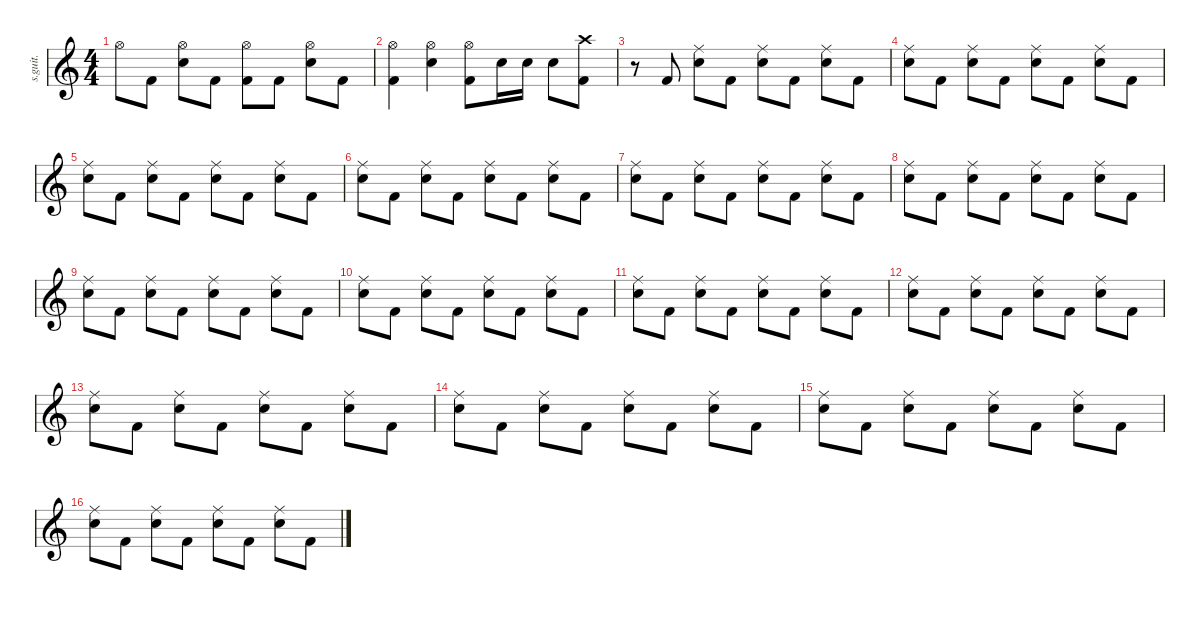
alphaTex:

\defaultSystemsLayout 4
\hideDynamics
\bracketExtendMode nobrackets
\track ("Nick Menza (Drums)" "s.guit.") {instrument percussion}
\staff {score}
\articulation defaults
\ts (4 4)
\tempo (196 hide)
\clef g2
\ks c "Hi-Hat (open)".8{lyrics (0 "") lyrics (1 "") lyrics (2 "") lyrics (3 "") lyrics (4 "") dy f} "Kick (hit) 2".8{lyrics (0 "") lyrics (1 "") lyrics (2 "") lyrics (3 "") lyrics (4 "") dy fff}
("Hi-Hat (open)" "Snare (hit) 2").8{lyrics (0 "") lyrics (1 "") lyrics (2 "") lyrics (3 "") lyrics (4 "") dy f} "Kick (hit) 2".8{lyrics (0 "") lyrics (1 "") lyrics (2 "") lyrics (3 "") lyrics (4 "") dy fff} ("Hi-Hat (open)" "Kick (hit) 2").8{lyrics (0 "") lyrics (1 "") lyrics (2 "") lyrics (3 "") lyrics (4 "") dy f} "Kick (hit) 2".8{lyrics (0 "") lyrics (1 "") lyrics (2 "") lyrics (3 "") lyrics (4 "") dy fff} ("Hi-Hat (open)" "Snare (hit) 2").8{lyrics (0 "") lyrics (1 "") lyrics (2 "") lyrics (3 "") lyrics (4 "") dy f} "Kick (hit) 2".8{lyrics (0 "") lyrics (1 "") lyrics (2 "") lyrics (3 "") lyrics (4 "")} |
("Hi-Hat (open)" "Kick (hit) 2").4{lyrics (0 "") lyrics (1 "") lyrics (2 "") lyrics (3 "") lyrics (4 "")} ("Hi-Hat (open)" "Snare (hit) 2").4{lyrics (0 "") lyrics (1 "") lyrics (2 "") lyrics (3 "") lyrics (4 "")} ("Hi-Hat (open)" "Kick (hit) 2").8{lyrics (0 "") lyrics (1 "") lyrics (2 "") lyrics (3 "") lyrics (4 "")} "Snare (hit) 2".16{lyrics (0 "") lyrics (1 "") lyrics (2 "") lyrics (3 "") lyrics (4 "")} "Snare (hit) 2".16{lyrics (0 "") lyrics (1 "") lyrics (2 "") lyrics (3 "") lyrics (4 "")} "Snare (hit) 2".8{lyrics (0 "") lyrics (1 "") lyrics (2 "") lyrics (3 "") lyrics (4 "")} ("Crash high (hit)" "Kick (hit) 2").8{lyrics (0 "") lyrics (1 "") lyrics (2 "") lyrics (3 "") lyrics (4 "")} |
r.8 "Kick (hit) 2".8{lyrics (0 "") lyrics (1 "") lyrics (2 "") lyrics (3 "") lyrics (4 "") dy fff} ("Ride (middle)" "Snare (hit) 2").8{lyrics (0 "") lyrics (1 "") lyrics (2 "") lyrics (3 "") lyrics (4 "") dy f} "Kick (hit) 2".8{lyrics (0 "") lyrics (1 "") lyrics (2 "") lyrics (3 "") lyrics (4 "") dy fff} ("Ride (middle)" "Snare (hit) 2").8{lyrics (0 "") lyrics (1 "") lyrics (2 "") lyrics (3 "") lyrics (4 "") dy f} "Kick (hit) 2".8{lyrics (0 "") lyrics (1 "") lyrics (2 "") lyrics (3 "") lyrics (4 "") dy fff} ("Ride (middle)" "Snare (hit) 2").8{lyrics (0 "") lyrics (1 "") lyrics (2 "") lyrics (3 "") lyrics (4 "") dy f} "Kick (hit) 2".8{lyrics (0 "") lyrics (1 "") lyrics (2 "") lyrics (3 "") lyrics (4 "")} |
("Ride (middle)" "Snare (hit) 2").8{lyrics (0 "") lyrics (1 "") lyrics (2 "") lyrics (3 "") lyrics (4 "")} "Kick (hit) 2".8{lyrics (0 "") lyrics (1 "") lyrics (2 "") lyrics (3 "") lyrics (4 "") dy fff} ("Ride (middle)" "Snare (hit) 2").8{lyrics (0 "") lyrics (1 "") lyrics (2 "") lyrics (3 "") lyrics (4 "") dy f} "Kick (hit) 2".8{lyrics (0 "") lyrics (1 "") lyrics (2 "") lyrics (3 "") lyrics (4 "") dy fff} ("Ride (middle)" "Snare (hit) 2").8{lyrics (0 "") lyrics (1 "") lyrics (2 "") lyrics (3 "") lyrics (4 "") dy f} "Kick (hit) 2".8{lyrics (0 "") lyrics (1 "") lyrics (2 "") lyrics (3 "") lyrics (4 "") dy fff} ("Ride (middle)" "Snare (hit) 2").8{lyrics (0 "") lyrics (1 "") lyrics (2 "") lyrics (3 "") lyrics (4 "") dy f} "Kick (hit) 2".8{lyrics (0 "") lyrics (1 "") lyrics (2 "") lyrics (3 "") lyrics (4 "")} |
("Ride (middle)" "Snare (hit) 2").8{lyrics (0 "") lyrics (1 "") lyrics (2 "") lyrics (3 "") lyrics (4 "")} "Kick (hit) 2".8{lyrics (0 "") lyrics (1 "") lyrics (2 "") lyrics (3 "") lyrics (4 "") dy fff} ("Ride (middle)" "Snare (hit) 2").8{lyrics (0 "") lyrics (1 "") lyrics (2 "") lyrics (3 "") lyrics (4 "") dy f} "Kick (hit) 2".8{lyrics (0 "") lyrics (1 "") lyrics (2 "") lyrics (3 "") lyrics (4 "") dy fff} ("Ride (middle)" "Snare (hit) 2").8{lyrics (0 "") lyrics (1 "") lyrics (2 "") lyrics (3 "") lyrics (4 "") dy f} "Kick (hit) 2".8{lyrics (0 "") lyrics (1 "") lyrics (2 "") lyrics (3 "") lyrics (4 "") dy fff} ("Ride (middle)" "Snare (hit) 2").8{lyrics (0 "") lyrics (1 "") lyrics (2 "") lyrics (3 "") lyrics (4 "") dy f} "Kick (hit) 2".8{lyrics (0 "") lyrics (1 "") lyrics (2 "") lyrics (3 "") lyrics (4 "")} |
("Ride (middle)" "Snare (hit) 2").8{lyrics (0 "") lyrics (1 "") lyrics (2 "") lyrics (3 "") lyrics (4 "")} "Kick (hit) 2".8{lyrics (0 "") lyrics (1 "") lyrics (2 "") lyrics (3 "") lyrics (4 "") dy fff} ("Ride (middle)" "Snare (hit) 2").8{lyrics (0 "") lyrics (1 "") lyrics (2 "") lyrics (3 "") lyrics (4 "") dy f} "Kick (hit) 2".8{lyrics (0 "") lyrics (1 "") lyrics (2 "") lyrics (3 "") lyrics (4 "") dy fff} ("Ride (middle)" "Snare (hit) 2").8{lyrics (0 "") lyrics (1 "") lyrics (2 "") lyrics (3 "") lyrics (4 "") dy f} "Kick (hit) 2".8{lyrics (0 "") lyrics (1 "") lyrics (2 "") lyrics (3 "") lyrics (4 "") dy fff} ("Ride (middle)" "Snare (hit) 2").8{lyrics (0 "") lyrics (1 "") lyrics (2 "") lyrics (3 "") lyrics (4 "") dy f} "Kick (hit) 2".8{lyrics (0 "") lyrics (1 "") lyrics (2 "") lyrics (3 "") lyrics (4 "")} |
("Ride (middle)" "Snare (hit) 2").8{lyrics (0 "") lyrics (1 "") lyrics (2 "") lyrics (3 "") lyrics (4 "")} "Kick (hit) 2".8{lyrics (0 "") lyrics (1 "") lyrics (2 "") lyrics (3 "") lyrics (4 "") dy fff} ("Ride (middle)" "Snare (hit) 2").8{lyrics (0 "") lyrics (1 "") lyrics (2 "") lyrics (3 "") lyrics (4 "") dy f} "Kick (hit) 2".8{lyrics (0 "") lyrics (1 "") lyrics (2 "") lyrics (3 "") lyrics (4 "") dy fff} ("Ride (middle)" "Snare (hit) 2").8{lyrics (0 "") lyrics (1 "") lyrics (2 "") lyrics (3 "") lyrics (4 "") dy f} "Kick (hit) 2".8{lyrics (0 "") lyrics (1 "") lyrics (2 "") lyrics (3 "") lyrics (4 "") dy fff} ("Ride (middle)" "Snare (hit) 2").8{lyrics (0 "") lyrics (1 "") lyrics (2 "") lyrics (3 "") lyrics (4 "") dy f} "Kick (hit) 2".8{lyrics (0 "") lyrics (1 "") lyrics (2 "") lyrics (3 "") lyrics (4 "")} |
("Ride (middle)" "Snare (hit) 2").8{lyrics (0 "") lyrics (1 "") lyrics (2 "") lyrics (3 "") lyrics (4 "")} "Kick (hit) 2".8{lyrics (0 "") lyrics (1 "") lyrics (2 "") lyrics (3 "") lyrics (4 "") dy fff} ("Ride (middle)" "Snare (hit) 2").8{lyrics (0 "") lyrics (1 "") lyrics (2 "") lyrics (3 "") lyrics (4 "") dy f} "Kick (hit) 2".8{lyrics (0 "") lyrics (1 "") lyrics (2 "") lyrics (3 "") lyrics (4 "") dy fff} ("Ride (middle)" "Snare (hit) 2").8{lyrics (0 "") lyrics (1 "") lyrics (2 "") lyrics (3 "") lyrics (4 "") dy f} "Kick (hit) 2".8{lyrics (0 "") lyrics (1 "") lyrics (2 "") lyrics (3 "") lyrics (4 "") dy fff} ("Ride (middle)" "Snare (hit) 2").8{lyrics (0 "") lyrics (1 "") lyrics (2 "") lyrics (3 "") lyrics (4 "") dy f} "Kick (hit) 2".8{lyrics (0 "") lyrics (1 "") lyrics (2 "") lyrics (3 "") lyrics (4 "")} |
("Ride (middle)" "Snare (hit) 2").8{lyrics (0 "") lyrics (1 "") lyrics (2 "") lyrics (3 "") lyrics (4 "")} "Kick (hit) 2".8{lyrics (0 "") lyrics (1 "") lyrics (2 "") lyrics (3 "") lyrics (4 "") dy fff} ("Ride (middle)" "Snare (hit) 2").8{lyrics (0 "") lyrics (1 "") lyrics (2 "") lyrics (3 "") lyrics (4 "") dy f} "Kick (hit) 2".8{lyrics (0 "") lyrics (1 "") lyrics (2 "") lyrics (3 "") lyrics (4 "") dy fff} ("Ride (middle)" "Snare (hit) 2").8{lyrics (0 "") lyrics (1 "") lyrics (2 "") lyrics (3 "") lyrics (4 "") dy f} "Kick (hit) 2".8{lyrics (0 "") lyrics (1 "") lyrics (2 "") lyrics (3 "") lyrics (4 "") dy fff} ("Ride (middle)" "Snare (hit) 2").8{lyrics (0 "") lyrics (1 "") lyrics (2 "") lyrics (3 "") lyrics (4 "") dy f} "Kick (hit) 2".8{lyrics (0 "") lyrics (1 "") lyrics (2 "") lyrics (3 "") lyrics (4 "")} |
("Ride (middle)" "Snare (hit) 2").8{lyrics (0 "") lyrics (1 "") lyrics (2 "") lyrics (3 "") lyrics (4 "")} "Kick (hit) 2".8{lyrics (0 "") lyrics (1 "") lyrics (2 "") lyrics (3 "") lyrics (4 "") dy fff} ("Ride (middle)" "Snare (hit) 2").8{lyrics (0 "") lyrics (1 "") lyrics (2 "") lyrics (3 "") lyrics (4 "") dy f} "Kick (hit) 2".8{lyrics (0 "") lyrics (1 "") lyrics (2 "") lyrics (3 "") lyrics (4 "") dy fff} ("Ride (middle)" "Snare (hit) 2").8{lyrics (0 "") lyrics (1 "") lyrics (2 "") lyrics (3 "") lyrics (4 "") dy f} "Kick (hit) 2".8{lyrics (0 "") lyrics (1 "") lyrics (2 "") lyrics (3 "") lyrics (4 "") dy fff} ("Ride (middle)" "Snare (hit) 2").8{lyrics (0 "") lyrics (1 "") lyrics (2 "") lyrics (3 "") lyrics (4 "") dy f} "Kick (hit) 2".8{lyrics (0 "") lyrics (1 "") lyrics (2 "") lyrics (3 "") lyrics (4 "")} |
("Ride (middle)" "Snare (hit) 2").8{lyrics (0 "") lyrics (1 "") lyrics (2 "") lyrics (3 "") lyrics (4 "")} "Kick (hit) 2".8{lyrics (0 "") lyrics (1 "") lyrics (2 "") lyrics (3 "") lyrics (4 "") dy fff} ("Ride (middle)" "Snare (hit) 2").8{lyrics (0 "") lyrics (1 "") lyrics (2 "") lyrics (3 "") lyrics (4 "") dy f} "Kick (hit) 2".8{lyrics (0 "") lyrics (1 "") lyrics (2 "") lyrics (3 "") lyrics (4 "") dy fff} ("Ride (middle)" "Snare (hit) 2").8{lyrics (0 "") lyrics (1 "") lyrics (2 "") lyrics (3 "") lyrics (4 "") dy f} "Kick (hit) 2".8{lyrics (0 "") lyrics (1 "") lyrics (2 "") lyrics (3 "") lyrics (4 "") dy fff} ("Ride (middle)" "Snare (hit) 2").8{lyrics (0 "") lyrics (1 "") lyrics (2 "") lyrics (3 "") lyrics (4 "") dy f} "Kick (hit) 2".8{lyrics (0 "") lyrics (1 "") lyrics (2 "") lyrics (3 "") lyrics (4 "")} |
("Ride (middle)" "Snare (hit) 2").8{lyrics (0 "") lyrics (1 "") lyrics (2 "") lyrics (3 "") lyrics (4 "")} "Kick (hit) 2".8{lyrics (0 "") lyrics (1 "") lyrics (2 "") lyrics (3 "") lyrics (4 "") dy fff} ("Ride (middle)" "Snare (hit) 2").8{lyrics (0 "") lyrics (1 "") lyrics (2 "") lyrics (3 "") lyrics (4 "") dy f} "Kick (hit) 2".8{lyrics (0 "") lyrics (1 "") lyrics (2 "") lyrics (3 "") lyrics (4 "") dy fff} ("Ride (middle)" "Snare (hit) 2").8{lyrics (0 "") lyrics (1 "") lyrics (2 "") lyrics (3 "") lyrics (4 "") dy f} "Kick (hit) 2".8{lyrics (0 "") lyrics (1 "") lyrics (2 "") lyrics (3 "") lyrics (4 "") dy fff} ("Ride (middle)" "Snare (hit) 2").8{lyrics (0 "") lyrics (1 "") lyrics (2 "") lyrics (3 "") lyrics (4 "") dy f} "Kick (hit) 2".8{lyrics (0 "") lyrics (1 "") lyrics (2 "") lyrics (3 "") lyrics (4 "")} |
("Ride (middle)" "Snare (hit) 2").8{lyrics (0 "") lyrics (1 "") lyrics (2 "") lyrics (3 "") lyrics (4 "")} "Kick (hit) 2".8{lyrics (0 "") lyrics (1 "") lyrics (2 "") lyrics (3 "") lyrics (4 "") dy fff} ("Ride (middle)" "Snare (hit) 2").8{lyrics (0 "") lyrics (1 "") lyrics (2 "") lyrics (3 "") lyrics (4 "") dy f} "Kick (hit) 2".8{lyrics (0 "") lyrics (1 "") lyrics (2 "") lyrics (3 "") lyrics (4 "") dy fff} ("Ride (middle)" "Snare (hit) 2").8{lyrics (0 "") lyrics (1 "") lyrics (2 "") lyrics (3 "") lyrics (4 "") dy f} "Kick (hit) 2".8{lyrics (0 "") lyrics (1 "") lyrics (2 "") lyrics (3 "") lyrics (4 "") dy fff} ("Ride (middle)" "Snare (hit) 2").8{lyrics (0 "") lyrics (1 "") lyrics (2 "") lyrics (3 "") lyrics (4 "") dy f} "Kick (hit) 2".8{lyrics (0 "") lyrics (1 "") lyrics (2 "") lyrics (3 "") lyrics (4 "")} |
("Ride (middle)" "Snare (hit) 2").8{lyrics (0 "") lyrics (1 "") lyrics (2 "") lyrics (3 "") lyrics (4 "")} "Kick (hit) 2".8{lyrics (0 "") lyrics (1 "") lyrics (2 "") lyrics (3 "") lyrics (4 "") dy fff} ("Ride (middle)" "Snare (hit) 2").8{lyrics (0 "") lyrics (1 "") lyrics (2 "") lyrics (3 "") lyrics (4 "") dy f} "Kick (hit) 2".8{lyrics (0 "") lyrics (1 "") lyrics (2 "") lyrics (3 "") lyrics (4 "") dy fff} ("Ride (middle)" "Snare (hit) 2").8{lyrics (0 "") lyrics (1 "") lyrics (2 "") lyrics (3 "") lyrics (4 "") dy f} "Kick (hit) 2".8{lyrics (0 "") lyrics (1 "") lyrics (2 "") lyrics (3 "") lyrics (4 "") dy fff} ("Ride (middle)" "Snare (hit) 2").8{lyrics (0 "") lyrics (1 "") lyrics (2 "") lyrics (3 "") lyrics (4 "") dy f} "Kick (hit) 2".8{lyrics (0 "") lyrics (1 "") lyrics (2 "") lyrics (3 "") lyrics (4 "")} |
("Ride (middle)" "Snare (hit) 2").8{lyrics (0 "") lyrics (1 "") lyrics (2 "") lyrics (3 "") lyrics (4 "")} "Kick (hit) 2".8{lyrics (0 "") lyrics (1 "") lyrics (2 "") lyrics (3 "") lyrics (4 "") dy fff} ("Ride (middle)" "Snare (hit) 2").8{lyrics (0 "") lyrics (1 "") lyrics (2 "") lyrics (3 "") lyrics (4 "") dy f} "Kick (hit) 2".8{lyrics (0 "") lyrics (1 "") lyrics (2 "") lyrics (3 "") lyrics (4 "") dy fff} ("Ride (middle)" "Snare (hit) 2").8{lyrics (0 "") lyrics (1 "") lyrics (2 "") lyrics (3 "") lyrics (4 "") dy f} "Kick (hit) 2".8{lyrics (0 "") lyrics (1 "") lyrics (2 "") lyrics (3 "") lyrics (4 "") dy fff} ("Ride (middle)" "Snare (hit) 2").8{lyrics (0 "") lyrics (1 "") lyrics (2 "") lyrics (3 "") lyrics (4 "") dy f} "Kick (hit) 2".8{lyrics (0 "") lyrics (1 "") lyrics (2 "") lyrics (3 "") lyrics (4 "")} |
("Ride (middle)" "Snare (hit) 2").8{lyrics (0 "") lyrics (1 "") lyrics (2 "") lyrics (3 "") lyrics (4 "")} "Kick (hit) 2".8{lyrics (0 "") lyrics (1 "") lyrics (2 "") lyrics (3 "") lyrics (4 "") dy fff} ("Ride (middle)" "Snare (hit) 2").8{lyrics (0 "") lyrics (1 "") lyrics (2 "") lyrics (3 "") lyrics (4 "") dy f} "Kick (hit) 2".8{lyrics (0 "") lyrics (1 "") lyrics (2 "") lyrics (3 "") lyrics (4 "") dy fff} ("Ride (middle)" "Snare (hit) 2").8{lyrics (0 "") lyrics (1 "") lyrics (2 "") lyrics (3 "") lyrics (4 "") dy f} "Kick (hit) 2".8{lyrics (0 "") lyrics (1 "") lyrics (2 "") lyrics (3 "") lyrics (4 "") dy fff} ("Ride (middle)" "Snare (hit) 2").8{lyrics (0 "") lyrics (1 "") lyrics (2 "") lyrics (3 "") lyrics (4 "") dy f} "Kick (hit) 2".8{lyrics (0 "") lyrics (1 "") lyrics (2 "") lyrics (3 "") lyrics (4 "")}
